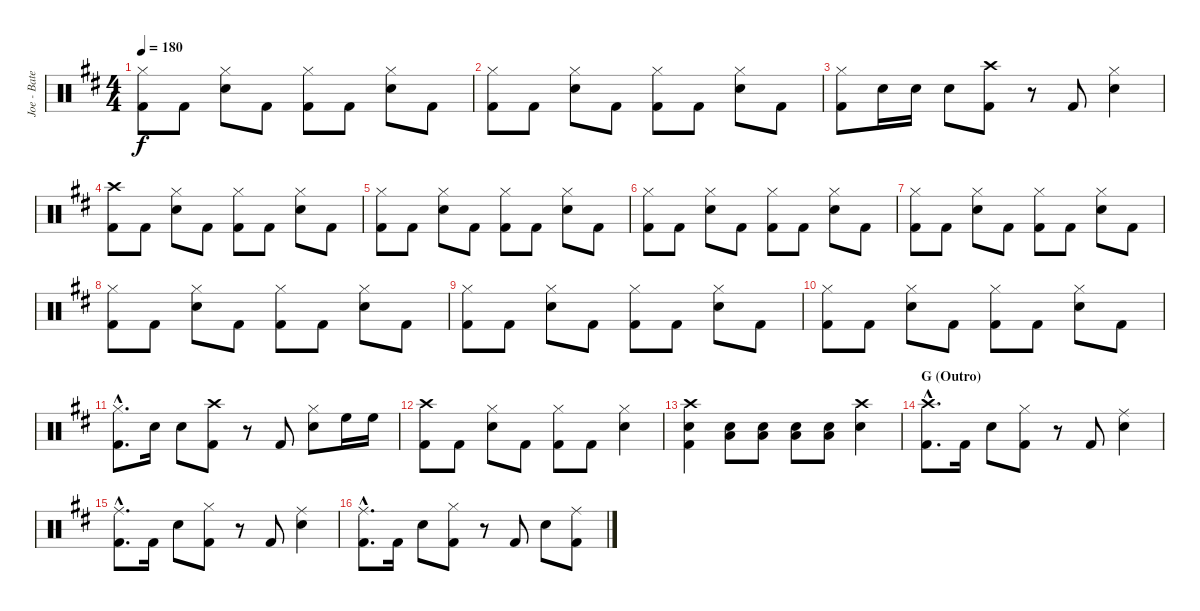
\track ("Joe - Batería -" "Joe - Bate") {instrument percussion}
\staff {score}
\articulation defaults
\ts (4 4)
\tempo 180
\clef neutral
\ks bminor
("Hi-Hat (closed)" "Kick (hit) 2").8{dy f} "Kick (hit) 2".8 ("Hi-Hat (closed)" "Snare (hit) 2").8 "Kick (hit) 2".8 ("Hi-Hat (closed)" "Kick (hit) 2").8 "Kick (hit) 2".8 ("Hi-Hat (closed)" "Snare (hit) 2").8 "Kick (hit) 2".8 |
("Hi-Hat (closed)" "Kick (hit) 2").8 "Kick (hit) 2".8 ("Hi-Hat (closed)" "Snare (hit) 2").8 "Kick (hit) 2".8 ("Hi-Hat (closed)" "Kick (hit) 2").8 "Kick (hit) 2".8 ("Hi-Hat (closed)" "Snare (hit) 2").8 "Kick (hit) 2".8 |
("Hi-Hat (closed)" "Kick (hit) 2").8 "Snare (hit) 2".16 "Snare (hit) 2".16 "Snare (hit) 2".8 ("Crash high (hit)" "Kick (hit) 2").8 r.8 "Kick (hit) 2".8 ("Hi-Hat (closed)" "Snare (hit) 2").4 |
("Crash high (hit)" "Kick (hit) 2").8 "Kick (hit) 2".8 ("Hi-Hat (closed)" "Snare (hit) 2").8 "Kick (hit) 2".8 ("Hi-Hat (closed)" "Kick (hit) 2").8 "Kick (hit) 2".8 ("Hi-Hat (closed)" "Snare (hit) 2").8 "Kick (hit) 2".8 |
("Hi-Hat (closed)" "Kick (hit) 2").8 "Kick (hit) 2".8 ("Hi-Hat (closed)" "Snare (hit) 2").8 "Kick (hit) 2".8 ("Hi-Hat (closed)" "Kick (hit) 2").8 "Kick (hit) 2".8 ("Hi-Hat (closed)" "Snare (hit) 2").8 "Kick (hit) 2".8 |
("Hi-Hat (closed)" "Kick (hit) 2").8 "Kick (hit) 2".8 ("Hi-Hat (closed)" "Snare (hit) 2").8 "Kick (hit) 2".8 ("Hi-Hat (closed)" "Kick (hit) 2").8 "Kick (hit) 2".8 ("Hi-Hat (closed)" "Snare (hit) 2").8 "Kick (hit) 2".8 |
("Hi-Hat (closed)" "Kick (hit) 2").8 "Kick (hit) 2".8 ("Hi-Hat (closed)" "Snare (hit) 2").8 "Kick (hit) 2".8 ("Hi-Hat (closed)" "Kick (hit) 2").8 "Kick (hit) 2".8 ("Hi-Hat (closed)" "Snare (hit) 2").8 "Kick (hit) 2".8 |
("Hi-Hat (closed)" "Kick (hit) 2").8 "Kick (hit) 2".8 ("Hi-Hat (closed)" "Snare (hit) 2").8 "Kick (hit) 2".8 ("Hi-Hat (closed)" "Kick (hit) 2").8 "Kick (hit) 2".8 ("Hi-Hat (closed)" "Snare (hit) 2").8 "Kick (hit) 2".8 |
("Hi-Hat (closed)" "Kick (hit) 2").8 "Kick (hit) 2".8 ("Hi-Hat (closed)" "Snare (hit) 2").8 "Kick (hit) 2".8 ("Hi-Hat (closed)" "Kick (hit) 2").8 "Kick (hit) 2".8 ("Hi-Hat (closed)" "Snare (hit) 2").8 "Kick (hit) 2".8 |
("Hi-Hat (closed)" "Kick (hit) 2").8 "Kick (hit) 2".8 ("Hi-Hat (closed)" "Snare (hit) 2").8 "Kick (hit) 2".8 ("Hi-Hat (closed)" "Kick (hit) 2").8 "Kick (hit) 2".8 ("Hi-Hat (closed)" "Snare (hit) 2").8 "Kick (hit) 2".8 |
("Hi-Hat (closed)"{hac} "Kick (hit) 2"{hac}).8{d} "Snare (hit) 2".16 "Snare (hit) 2".8 ("Crash high (hit)" "Kick (hit) 2").8 r.8 "Kick (hit) 2".8 ("Hi-Hat (closed)" "Snare (hit) 2").8 "High Floor Tom (hit)".16 "High Floor Tom (hit)".16 |
("Crash high (hit)" "Kick (hit) 2").8 "Kick (hit) 2".8 ("Hi-Hat (closed)" "Snare (hit) 2").8 "Kick (hit) 2".8 ("Hi-Hat (closed)" "Kick (hit) 2").8 "Kick (hit) 2".8 ("Hi-Hat (closed)" "Snare (hit) 2").4 |
("Crash high (hit)" "Snare (hit) 2" "Kick (hit) 2").4 ("Snare (hit) 2" "Low Floor Tom (hit)").8 ("Snare (hit) 2" "Low Floor Tom (hit)").8 ("Snare (hit) 2" "Low Floor Tom (hit)").8 ("Snare (hit) 2" "Low Floor Tom (hit)").8 ("Crash high (hit)" "Snare (hit) 2").4 |
\section ("" "G (Outro)")
("Crash high (hit)"{hac} "Kick (hit) 2"{hac}).8{d} "Kick (hit) 2".16 "Snare (hit) 2".8 ("Hi-Hat (closed)" "Kick (hit) 2").8 r.8 "Kick (hit) 2".8 ("Ride (middle)" "Snare (hit) 2").4 |
("Ride (middle)"{hac} "Kick (hit) 2"{hac}).8{d} "Kick (hit) 2".16 "Snare (hit) 2".8 ("Hi-Hat (closed)" "Kick (hit) 2").8 r.8 "Kick (hit) 2".8 ("Ride (middle)" "Snare (hit) 2").4 |
("Ride (middle)"{hac} "Kick (hit) 2"{hac}).8{d} "Kick (hit) 2".16 "Snare (hit) 2".8 ("Hi-Hat (closed)" "Kick (hit) 2").8 r.8 "Kick (hit) 2".8 "Snare (hit) 2".8 ("Ride (middle)" "Kick (hit) 2").8
